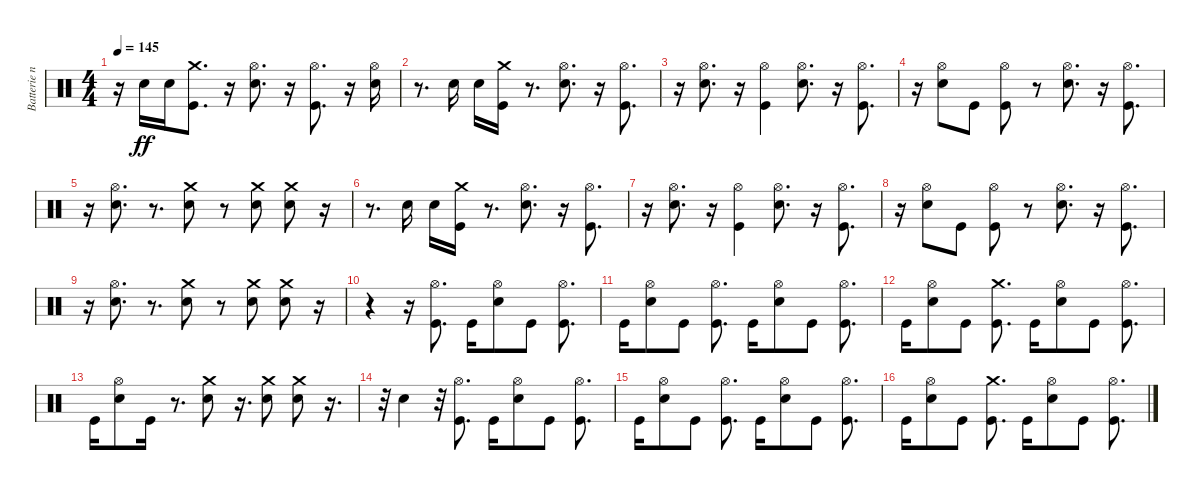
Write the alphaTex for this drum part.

\track ("Batterie n°3" "Batterie n") {instrument percussion}
\staff {score}
\articulation defaults
\ts (4 4)
\tempo 145
\clef neutral
\ks c
r.16{dy ff} "Snare (hit) 2".16 "Snare (hit) 2".16 ("Kick (hit)" "Crash medium (hit)").8{d} r.16 ("Snare (hit) 2" "Hi-Hat (open)").8{d} r.16 ("Kick (hit)" "Hi-Hat (open)").8{d} r.16 ("Snare (hit) 2" "Hi-Hat (open)").16 |
r.8{d} "Snare (hit) 2".16 "Snare (hit) 2".16 ("Kick (hit)" "Crash medium (hit)").16 r.8{d} ("Snare (hit) 2" "Hi-Hat (open)").8{d} r.16 ("Kick (hit)" "Hi-Hat (open)").8{d} |
r.16 ("Snare (hit) 2" "Hi-Hat (open)").8{d} r.16 ("Kick (hit)" "Hi-Hat (open)").4 ("Snare (hit) 2" "Hi-Hat (open)").8{d} r.16 ("Kick (hit)" "Hi-Hat (open)").8{d} |
r.16 ("Snare (hit) 2" "Hi-Hat (open)").8 "Kick (hit)".8 ("Kick (hit)" "Hi-Hat (open)").8 r.8 ("Snare (hit) 2" "Hi-Hat (open)").8{d} r.16 ("Kick (hit)" "Hi-Hat (open)").8{d} |
r.16 ("Snare (hit) 2" "Hi-Hat (open)").8{d} r.8{d} ("Snare (hit) 2" "Crash medium (hit)").8 r.8 ("Snare (hit) 2" "Crash medium (hit)").8 ("Snare (hit) 2" "Crash medium (hit)").8 r.16 |
r.8{d} "Snare (hit) 2".16 "Snare (hit) 2".16 ("Kick (hit)" "Crash medium (hit)").16 r.8{d} ("Snare (hit) 2" "Hi-Hat (open)").8{d} r.16 ("Kick (hit)" "Hi-Hat (open)").8{d} |
r.16 ("Snare (hit) 2" "Hi-Hat (open)").8{d} r.16 ("Kick (hit)" "Hi-Hat (open)").4 ("Snare (hit) 2" "Hi-Hat (open)").8{d} r.16 ("Kick (hit)" "Hi-Hat (open)").8{d} |
r.16 ("Snare (hit) 2" "Hi-Hat (open)").8 "Kick (hit)".8 ("Kick (hit)" "Hi-Hat (open)").8 r.8 ("Snare (hit) 2" "Hi-Hat (open)").8{d} r.16 ("Kick (hit)" "Hi-Hat (open)").8{d} |
r.16 ("Snare (hit) 2" "Hi-Hat (open)").8{d} r.8{d} ("Snare (hit) 2" "Crash medium (hit)").8 r.8 ("Snare (hit) 2" "Crash medium (hit)").8 ("Snare (hit) 2" "Crash medium (hit)").8 r.16 |
r.4 r.16 ("Kick (hit)" "Hi-Hat (open)").8{d} "Kick (hit)".16 ("Snare (hit) 2" "Hi-Hat (open)").8 "Kick (hit)".8 ("Kick (hit)" "Hi-Hat (open)").8{d} |
"Kick (hit)".16 ("Snare (hit) 2" "Hi-Hat (open)").8 "Kick (hit)".8 ("Kick (hit)" "Hi-Hat (open)").8{d} "Kick (hit)".16 ("Snare (hit) 2" "Hi-Hat (open)").8 "Kick (hit)".8 ("Kick (hit)" "Hi-Hat (open)").8{d} |
"Kick (hit)".16 ("Snare (hit) 2" "Hi-Hat (open)").8 "Kick (hit)".8 ("Kick (hit)" "Crash medium (hit)").8{d} "Kick (hit)".16 ("Snare (hit) 2" "Hi-Hat (open)").8 "Kick (hit)".8 ("Kick (hit)" "Hi-Hat (open)").8{d} |
"Kick (hit)".16 ("Snare (hit) 2" "Hi-Hat (open)").8 "Kick (hit)".16 r.8{d} ("Snare (hit) 2" "Crash medium (hit)").8 r.16{d} ("Snare (hit) 2" "Crash medium (hit)").8 ("Snare (hit) 2" "Crash medium (hit)").8 r.16{d} |
r.32 "Snare (hit) 2".4 r.32 ("Kick (hit)" "Hi-Hat (open)").8{d} "Kick (hit)".16 ("Snare (hit) 2" "Hi-Hat (open)").8 "Kick (hit)".8 ("Kick (hit)" "Hi-Hat (open)").8{d} |
"Kick (hit)".16 ("Snare (hit) 2" "Hi-Hat (open)").8 "Kick (hit)".8 ("Kick (hit)" "Hi-Hat (open)").8{d} "Kick (hit)".16 ("Snare (hit) 2" "Hi-Hat (open)").8 "Kick (hit)".8 ("Kick (hit)" "Hi-Hat (open)").8{d} |
"Kick (hit)".16 ("Snare (hit) 2" "Hi-Hat (open)").8 "Kick (hit)".8 ("Kick (hit)" "Crash medium (hit)").8{d} "Kick (hit)".16 ("Snare (hit) 2" "Hi-Hat (open)").8 "Kick (hit)".8 ("Kick (hit)" "Hi-Hat (open)").8{d}
